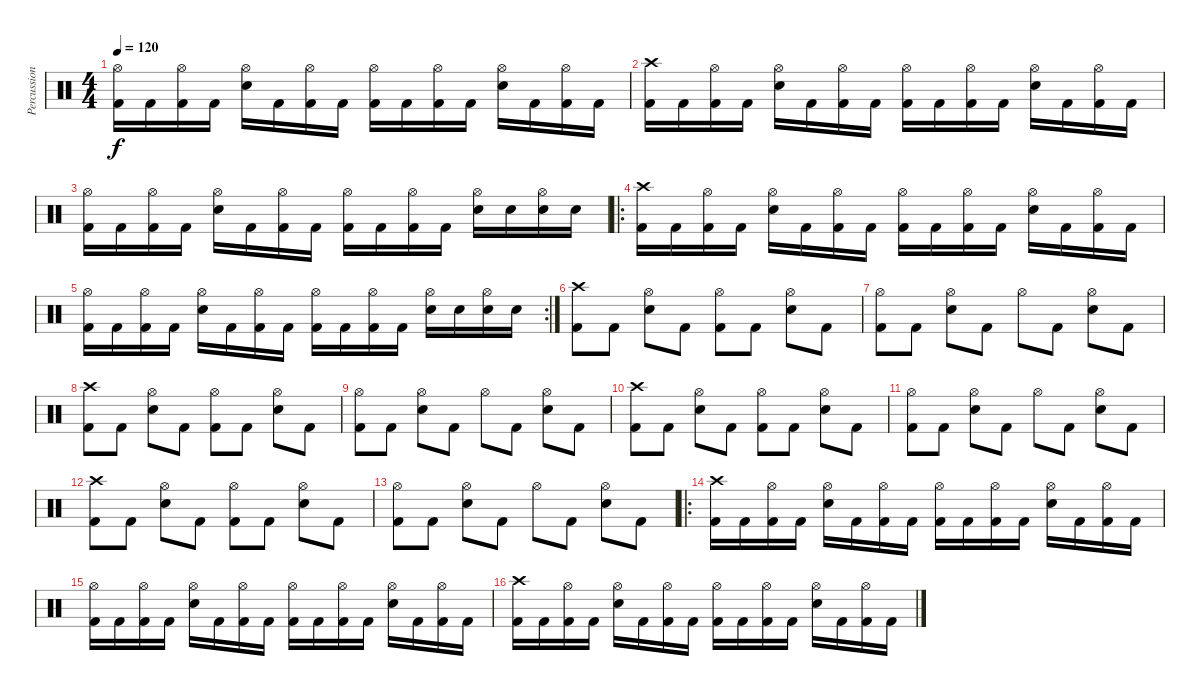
\track ("Percussion" "Percussion") {instrument percussion}
\staff {score}
\articulation defaults
\ts (4 4)
\tempo 120
\clef neutral
\ks c
("Hi-Hat (open)" "Kick (hit) 2").16{dy f} "Kick (hit) 2".16 ("Hi-Hat (open)" "Kick (hit) 2").16 "Kick (hit) 2".16 ("Hi-Hat (open)" "Snare (hit) 2").16 "Kick (hit) 2".16 ("Hi-Hat (open)" "Kick (hit) 2").16 "Kick (hit) 2".16 ("Hi-Hat (open)" "Kick (hit) 2").16 "Kick (hit) 2".16 ("Hi-Hat (open)" "Kick (hit) 2").16 "Kick (hit) 2".16 ("Hi-Hat (open)" "Snare (hit) 2").16 "Kick (hit) 2".16 ("Hi-Hat (open)" "Kick (hit) 2").16 "Kick (hit) 2".16 |
("Crash high (hit)" "Kick (hit) 2").16 "Kick (hit) 2".16 ("Hi-Hat (open)" "Kick (hit) 2").16 "Kick (hit) 2".16 ("Hi-Hat (open)" "Snare (hit) 2").16 "Kick (hit) 2".16 ("Hi-Hat (open)" "Kick (hit) 2").16 "Kick (hit) 2".16 ("Hi-Hat (open)" "Kick (hit) 2").16 "Kick (hit) 2".16 ("Hi-Hat (open)" "Kick (hit) 2").16 "Kick (hit) 2".16 ("Hi-Hat (open)" "Snare (hit) 2").16 "Kick (hit) 2".16 ("Hi-Hat (open)" "Kick (hit) 2").16 "Kick (hit) 2".16 |
("Hi-Hat (open)" "Kick (hit) 2").16 "Kick (hit) 2".16 ("Hi-Hat (open)" "Kick (hit) 2").16 "Kick (hit) 2".16 ("Hi-Hat (open)" "Snare (hit) 2").16 "Kick (hit) 2".16 ("Hi-Hat (open)" "Kick (hit) 2").16 "Kick (hit) 2".16 ("Hi-Hat (open)" "Kick (hit) 2").16 "Kick (hit) 2".16 ("Hi-Hat (open)" "Kick (hit) 2").16 "Kick (hit) 2".16 ("Hi-Hat (open)" "Snare (hit) 2").16 "Snare (hit) 2".16 ("Hi-Hat (open)" "Snare (hit) 2").16 "Snare (hit) 2".16 |
\ro
("Crash high (hit)" "Kick (hit) 2").16 "Kick (hit) 2".16 ("Hi-Hat (open)" "Kick (hit) 2").16 "Kick (hit) 2".16 ("Hi-Hat (open)" "Snare (hit) 2").16 "Kick (hit) 2".16 ("Hi-Hat (open)" "Kick (hit) 2").16 "Kick (hit) 2".16 ("Hi-Hat (open)" "Kick (hit) 2").16 "Kick (hit) 2".16 ("Hi-Hat (open)" "Kick (hit) 2").16 "Kick (hit) 2".16 ("Hi-Hat (open)" "Snare (hit) 2").16 "Kick (hit) 2".16 ("Hi-Hat (open)" "Kick (hit) 2").16 "Kick (hit) 2".16 |
\rc 2
("Hi-Hat (open)" "Kick (hit) 2").16 "Kick (hit) 2".16 ("Hi-Hat (open)" "Kick (hit) 2").16 "Kick (hit) 2".16 ("Hi-Hat (open)" "Snare (hit) 2").16 "Kick (hit) 2".16 ("Hi-Hat (open)" "Kick (hit) 2").16 "Kick (hit) 2".16 ("Hi-Hat (open)" "Kick (hit) 2").16 "Kick (hit) 2".16 ("Hi-Hat (open)" "Kick (hit) 2").16 "Kick (hit) 2".16 ("Hi-Hat (open)" "Snare (hit) 2").16 "Snare (hit) 2".16 ("Hi-Hat (open)" "Snare (hit) 2").16 "Snare (hit) 2".16 |
("Crash high (hit)" "Kick (hit) 2").8 "Kick (hit) 2".8 ("Hi-Hat (open)" "Snare (hit) 2").8 "Kick (hit) 2".8 ("Hi-Hat (open)" "Kick (hit) 2").8 "Kick (hit) 2".8 ("Hi-Hat (open)" "Snare (hit) 2").8 "Kick (hit) 2".8 |
("Hi-Hat (open)" "Kick (hit) 2").8 "Kick (hit) 2".8 ("Hi-Hat (open)" "Snare (hit) 2").8 "Kick (hit) 2".8 "Hi-Hat (open)".8 "Kick (hit) 2".8 ("Hi-Hat (open)" "Snare (hit) 2").8 "Kick (hit) 2".8 |
("Crash high (hit)" "Kick (hit) 2").8 "Kick (hit) 2".8 ("Hi-Hat (open)" "Snare (hit) 2").8 "Kick (hit) 2".8 ("Hi-Hat (open)" "Kick (hit) 2").8 "Kick (hit) 2".8 ("Hi-Hat (open)" "Snare (hit) 2").8 "Kick (hit) 2".8 |
("Hi-Hat (open)" "Kick (hit) 2").8 "Kick (hit) 2".8 ("Hi-Hat (open)" "Snare (hit) 2").8 "Kick (hit) 2".8 "Hi-Hat (open)".8 "Kick (hit) 2".8 ("Hi-Hat (open)" "Snare (hit) 2").8 "Kick (hit) 2".8 |
("Crash high (hit)" "Kick (hit) 2").8 "Kick (hit) 2".8 ("Hi-Hat (open)" "Snare (hit) 2").8 "Kick (hit) 2".8 ("Hi-Hat (open)" "Kick (hit) 2").8 "Kick (hit) 2".8 ("Hi-Hat (open)" "Snare (hit) 2").8 "Kick (hit) 2".8 |
("Hi-Hat (open)" "Kick (hit) 2").8 "Kick (hit) 2".8 ("Hi-Hat (open)" "Snare (hit) 2").8 "Kick (hit) 2".8 "Hi-Hat (open)".8 "Kick (hit) 2".8 ("Hi-Hat (open)" "Snare (hit) 2").8 "Kick (hit) 2".8 |
("Crash high (hit)" "Kick (hit) 2").8 "Kick (hit) 2".8 ("Hi-Hat (open)" "Snare (hit) 2").8 "Kick (hit) 2".8 ("Hi-Hat (open)" "Kick (hit) 2").8 "Kick (hit) 2".8 ("Hi-Hat (open)" "Snare (hit) 2").8 "Kick (hit) 2".8 |
("Hi-Hat (open)" "Kick (hit) 2").8 "Kick (hit) 2".8 ("Hi-Hat (open)" "Snare (hit) 2").8 "Kick (hit) 2".8 "Hi-Hat (open)".8 "Kick (hit) 2".8 ("Hi-Hat (open)" "Snare (hit) 2").8 "Kick (hit) 2".8 |
\ro
("Crash high (hit)" "Kick (hit) 2").16 "Kick (hit) 2".16 ("Hi-Hat (open)" "Kick (hit) 2").16 "Kick (hit) 2".16 ("Hi-Hat (open)" "Snare (hit) 2").16 "Kick (hit) 2".16 ("Hi-Hat (open)" "Kick (hit) 2").16 "Kick (hit) 2".16 ("Hi-Hat (open)" "Kick (hit) 2").16 "Kick (hit) 2".16 ("Hi-Hat (open)" "Kick (hit) 2").16 "Kick (hit) 2".16 ("Hi-Hat (open)" "Snare (hit) 2").16 "Kick (hit) 2".16 ("Hi-Hat (open)" "Kick (hit) 2").16 "Kick (hit) 2".16 |
("Hi-Hat (open)" "Kick (hit) 2").16 "Kick (hit) 2".16 ("Hi-Hat (open)" "Kick (hit) 2").16 "Kick (hit) 2".16 ("Hi-Hat (open)" "Snare (hit) 2").16 "Kick (hit) 2".16 ("Hi-Hat (open)" "Kick (hit) 2").16 "Kick (hit) 2".16 ("Hi-Hat (open)" "Kick (hit) 2").16 "Kick (hit) 2".16 ("Hi-Hat (open)" "Kick (hit) 2").16 "Kick (hit) 2".16 ("Hi-Hat (open)" "Snare (hit) 2").16 "Kick (hit) 2".16 ("Hi-Hat (open)" "Kick (hit) 2").16 "Kick (hit) 2".16 |
("Crash high (hit)" "Kick (hit) 2").16 "Kick (hit) 2".16 ("Hi-Hat (open)" "Kick (hit) 2").16 "Kick (hit) 2".16 ("Hi-Hat (open)" "Snare (hit) 2").16 "Kick (hit) 2".16 ("Hi-Hat (open)" "Kick (hit) 2").16 "Kick (hit) 2".16 ("Hi-Hat (open)" "Kick (hit) 2").16 "Kick (hit) 2".16 ("Hi-Hat (open)" "Kick (hit) 2").16 "Kick (hit) 2".16 ("Hi-Hat (open)" "Snare (hit) 2").16 "Kick (hit) 2".16 ("Hi-Hat (open)" "Kick (hit) 2").16 "Kick (hit) 2".16
